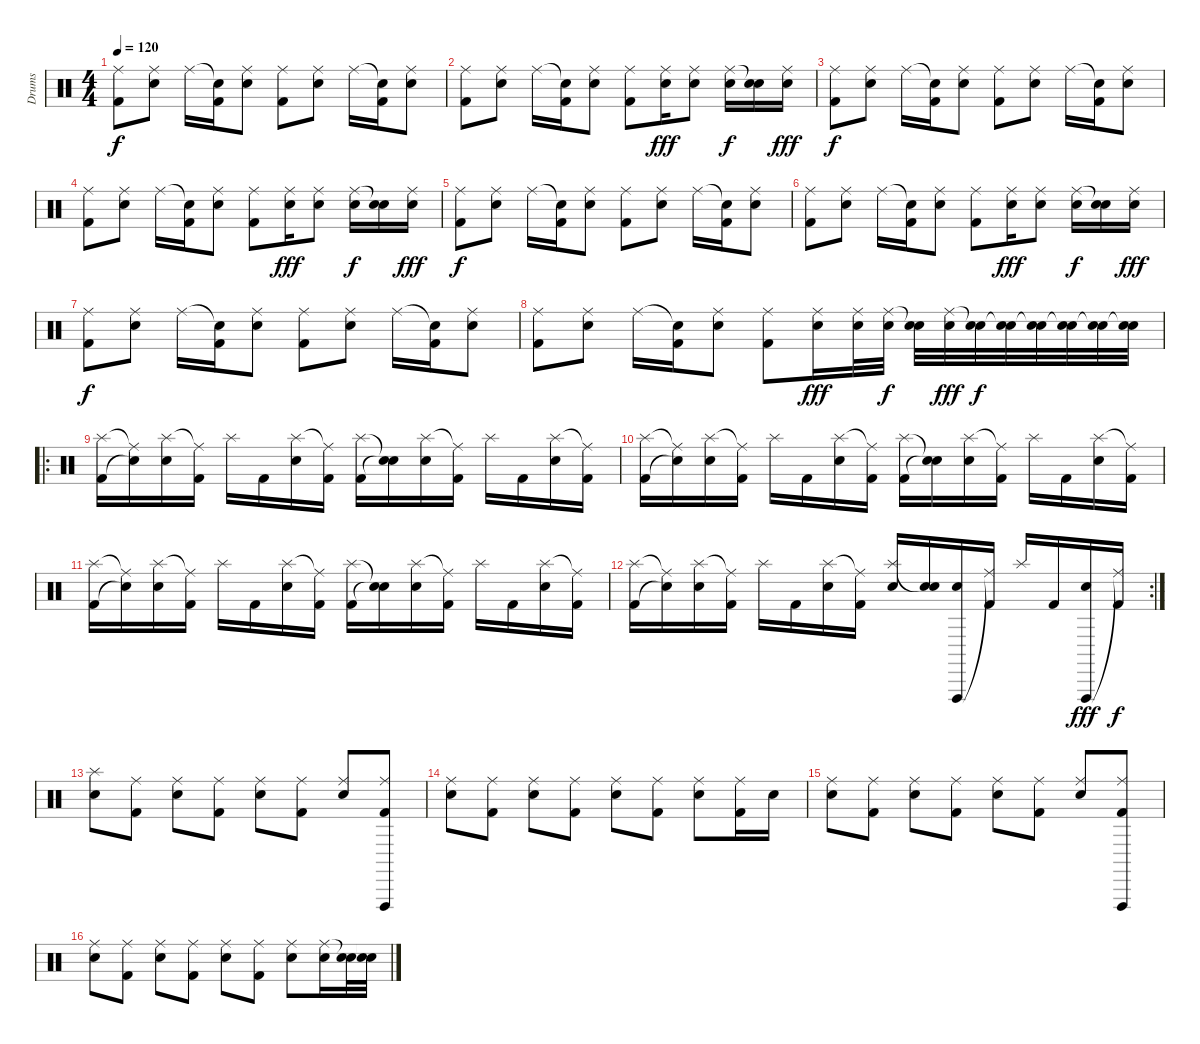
\track ("Drums" "Drums") {instrument percussion}
\staff {score}
\articulation defaults
\ts (4 4)
\tempo 120
\clef neutral
\ks c
("Ride (middle)" "Kick (hit) 2").8{dy f} ("Ride (middle)" "Electric Snare (hit)").8 "Ride (middle)".16 ("Snare (hit)"{t} "Kick (hit) 2").16 ("Ride (middle)" "Electric Snare (hit)").8 ("Ride (middle)" "Kick (hit) 2").8 ("Ride (middle)" "Electric Snare (hit)").8 "Ride (middle)".16 ("Snare (hit)"{t} "Kick (hit) 2").16 ("Ride (middle)" "Electric Snare (hit)").8 |
("Ride (middle)" "Kick (hit) 2").8 ("Ride (middle)" "Electric Snare (hit)").8 "Ride (middle)".16 ("Snare (hit)"{t} "Kick (hit) 2").16 ("Ride (middle)" "Electric Snare (hit)").8 ("Ride (middle)" "Kick (hit) 2").8 ("Ride (middle)" "Electric Snare (hit)").16{dy fff} ("Ride (middle)" "Electric Snare (hit)").8 ("Ride (middle)" "Electric Snare (hit)").16{dy f} ("Snare (hit)"{t} "Electric Snare (hit)").16 ("Ride (middle)" "Electric Snare (hit)").16{dy fff} |
("Ride (middle)" "Kick (hit) 2").8{dy f} ("Ride (middle)" "Electric Snare (hit)").8 "Ride (middle)".16 ("Snare (hit)"{t} "Kick (hit) 2").16 ("Ride (middle)" "Electric Snare (hit)").8 ("Ride (middle)" "Kick (hit) 2").8 ("Ride (middle)" "Electric Snare (hit)").8 "Ride (middle)".16 ("Snare (hit)"{t} "Kick (hit) 2").16 ("Ride (middle)" "Electric Snare (hit)").8 |
("Ride (middle)" "Kick (hit) 2").8 ("Ride (middle)" "Electric Snare (hit)").8 "Ride (middle)".16 ("Snare (hit)"{t} "Kick (hit) 2").16 ("Ride (middle)" "Electric Snare (hit)").8 ("Ride (middle)" "Kick (hit) 2").8 ("Ride (middle)" "Electric Snare (hit)").16{dy fff} ("Ride (middle)" "Electric Snare (hit)").8 ("Ride (middle)" "Electric Snare (hit)").16{dy f} ("Snare (hit)"{t} "Electric Snare (hit)").16 ("Ride (middle)" "Electric Snare (hit)").16{dy fff} |
("Ride (middle)" "Kick (hit) 2").8{dy f} ("Ride (middle)" "Electric Snare (hit)").8 "Ride (middle)".16 ("Snare (hit)"{t} "Kick (hit) 2").16 ("Ride (middle)" "Electric Snare (hit)").8 ("Ride (middle)" "Kick (hit) 2").8 ("Ride (middle)" "Electric Snare (hit)").8 "Ride (middle)".16 ("Snare (hit)"{t} "Kick (hit) 2").16 ("Ride (middle)" "Electric Snare (hit)").8 |
("Ride (middle)" "Kick (hit) 2").8 ("Ride (middle)" "Electric Snare (hit)").8 "Ride (middle)".16 ("Snare (hit)"{t} "Kick (hit) 2").16 ("Ride (middle)" "Electric Snare (hit)").8 ("Ride (middle)" "Kick (hit) 2").8 ("Ride (middle)" "Electric Snare (hit)").16{dy fff} ("Ride (middle)" "Electric Snare (hit)").8 ("Ride (middle)" "Electric Snare (hit)").16{dy f} ("Snare (hit)"{t} "Electric Snare (hit)").16 ("Ride (middle)" "Electric Snare (hit)").16{dy fff} |
("Ride (middle)" "Kick (hit) 2").8{dy f} ("Ride (middle)" "Electric Snare (hit)").8 "Ride (middle)".16 ("Snare (hit)"{t} "Kick (hit) 2").16 ("Ride (middle)" "Electric Snare (hit)").8 ("Ride (middle)" "Kick (hit) 2").8 ("Ride (middle)" "Electric Snare (hit)").8 "Ride (middle)".16 ("Snare (hit)"{t} "Kick (hit) 2").16 ("Ride (middle)" "Electric Snare (hit)").8 |
("Ride (middle)" "Kick (hit) 2").8 ("Ride (middle)" "Electric Snare (hit)").8 "Ride (middle)".16 ("Snare (hit)"{t} "Kick (hit) 2").16 ("Ride (middle)" "Electric Snare (hit)").8 ("Ride (middle)" "Kick (hit) 2").8 ("Ride (middle)" "Electric Snare (hit)").16{dy fff} ("Ride (middle)" "Electric Snare (hit)").32 ("Ride (middle)" "Electric Snare (hit)").32{dy f} ("Snare (hit)"{t} "Electric Snare (hit)").32 ("Ride (middle)" "Electric Snare (hit)").32{dy fff} ("Snare (hit)"{t} "Electric Snare (hit)").32{dy f} ("Snare (hit)"{t} "Electric Snare (hit)").32 ("Snare (hit)"{t} "Electric Snare (hit)").32 ("Snare (hit)"{t} "Electric Snare (hit)").32 ("Snare (hit)"{t} "Electric Snare (hit)").32 ("Snare (hit)"{t} "Electric Snare (hit)").32 |
\ro
("Splash (hit)" "Kick (hit) 2").16 ("Ride (middle)"{t} "Snare (hit)"{t}).16 ("Splash (hit)" "Electric Snare (hit)").16 ("Ride (middle)"{t} "Kick (hit) 2").16 "Splash (hit)".16 "Kick (hit) 2".16 ("Splash (hit)" "Electric Snare (hit)").16 ("Ride (middle)"{t} "Kick (hit) 2").16 ("Splash (hit)" "Kick (hit) 2").16 ("Snare (hit)"{t} "Snare (hit)"{t}).16 ("Splash (hit)" "Electric Snare (hit)").16 ("Ride (middle)"{t} "Kick (hit) 2").16 "Splash (hit)".16 "Kick (hit) 2".16 ("Splash (hit)" "Electric Snare (hit)").16 ("Ride (middle)"{t} "Kick (hit) 2").16 |
("Splash (hit)" "Kick (hit) 2").16 ("Ride (middle)"{t} "Snare (hit)"{t}).16 ("Splash (hit)" "Electric Snare (hit)").16 ("Ride (middle)"{t} "Kick (hit) 2").16 "Splash (hit)".16 "Kick (hit) 2".16 ("Splash (hit)" "Electric Snare (hit)").16 ("Ride (middle)"{t} "Kick (hit) 2").16 ("Splash (hit)" "Kick (hit) 2").16 ("Snare (hit)"{t} "Snare (hit)"{t}).16 ("Splash (hit)" "Electric Snare (hit)").16 ("Ride (middle)"{t} "Kick (hit) 2").16 "Splash (hit)".16 "Kick (hit) 2".16 ("Splash (hit)" "Electric Snare (hit)").16 ("Ride (middle)"{t} "Kick (hit) 2").16 |
("Splash (hit)" "Kick (hit) 2").16 ("Ride (middle)"{t} "Snare (hit)"{t}).16 ("Splash (hit)" "Electric Snare (hit)").16 ("Ride (middle)"{t} "Kick (hit) 2").16 "Splash (hit)".16 "Kick (hit) 2".16 ("Splash (hit)" "Electric Snare (hit)").16 ("Ride (middle)"{t} "Kick (hit) 2").16 ("Splash (hit)" "Kick (hit) 2").16 ("Snare (hit)"{t} "Snare (hit)"{t}).16 ("Splash (hit)" "Electric Snare (hit)").16 ("Ride (middle)"{t} "Kick (hit) 2").16 "Splash (hit)".16 "Kick (hit) 2".16 ("Splash (hit)" "Electric Snare (hit)").16 ("Ride (middle)"{t} "Kick (hit) 2").16 |
\rc 2
("Splash (hit)" "Kick (hit) 2").16 ("Ride (middle)"{t} "Snare (hit)"{t}).16 ("Splash (hit)" "Electric Snare (hit)").16 ("Ride (middle)"{t} "Kick (hit) 2").16 "Splash (hit)".16 "Kick (hit) 2".16 ("Splash (hit)" "Electric Snare (hit)").16 ("Ride (middle)"{t} "Kick (hit) 2").16 ("Splash (hit)" "Electric Snare (hit)").16 ("Snare (hit)"{t} "Electric Snare (hit)").16 ("Vibraslap (hit)" "Electric Snare (hit)").16 ("Ride (middle)"{t} "Kick (hit) 2").16 "Splash (hit)".16 "Kick (hit) 2".16 ("Vibraslap (hit)" "Electric Snare (hit)").16{dy fff} ("Ride (middle)"{t} "Kick (hit) 2").16{dy f} |
("Splash (hit)" "Electric Snare (hit)").8 ("Ride (middle)" "Kick (hit) 2").8 ("Ride (middle)" "Electric Snare (hit)").8 ("Ride (middle)" "Kick (hit) 2").8 ("Ride (middle)" "Electric Snare (hit)").8 ("Ride (middle)" "Kick (hit) 2").8 ("Ride (middle)" "Electric Snare (hit)").8 ("Ride (middle)" "Vibraslap (hit)" "Kick (hit) 2").8 |
("Ride (middle)" "Electric Snare (hit)").8 ("Ride (middle)" "Kick (hit) 2").8 ("Ride (middle)" "Electric Snare (hit)").8 ("Ride (middle)" "Kick (hit) 2").8 ("Ride (middle)" "Electric Snare (hit)").8 ("Ride (middle)" "Kick (hit) 2").8 ("Ride (middle)" "Electric Snare (hit)").8 ("Ride (middle)" "Kick (hit) 2").16 "Electric Snare (hit)".16 |
("Ride (middle)" "Electric Snare (hit)").8 ("Ride (middle)" "Kick (hit) 2").8 ("Ride (middle)" "Electric Snare (hit)").8 ("Ride (middle)" "Kick (hit) 2").8 ("Ride (middle)" "Electric Snare (hit)").8 ("Ride (middle)" "Kick (hit) 2").8 ("Ride (middle)" "Electric Snare (hit)").8 ("Ride (middle)" "Vibraslap (hit)" "Kick (hit) 2").8 |
("Ride (middle)" "Electric Snare (hit)").8 ("Ride (middle)" "Kick (hit) 2").8 ("Ride (middle)" "Electric Snare (hit)").8 ("Ride (middle)" "Kick (hit) 2").8 ("Ride (middle)" "Electric Snare (hit)").8 ("Ride (middle)" "Kick (hit) 2").8 ("Ride (middle)" "Electric Snare (hit)").8 ("Ride (middle)" "Electric Snare (hit)").16 ("Snare (hit)"{t} "Electric Snare (hit)").32 ("Snare (hit)"{t} "Electric Snare (hit)").32
